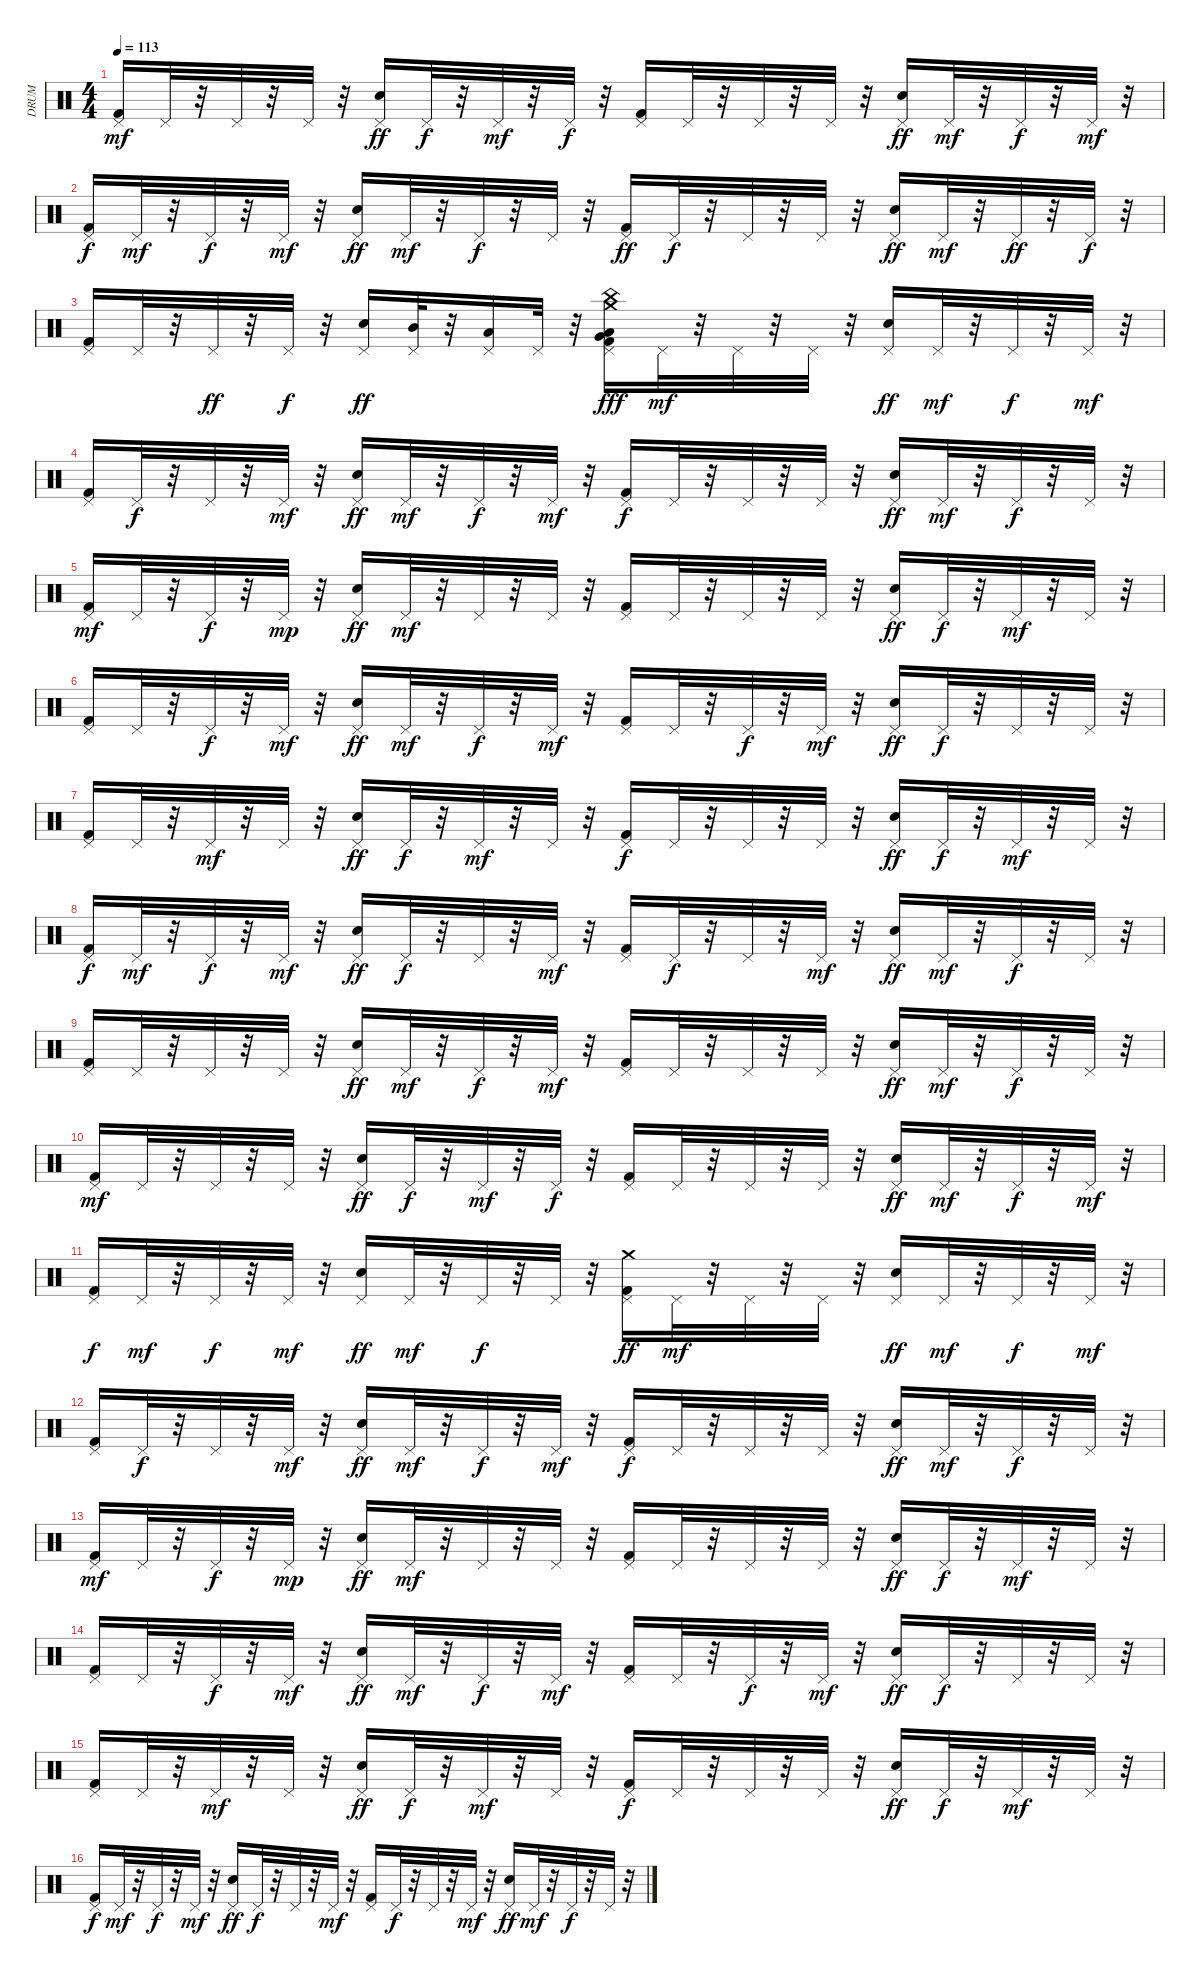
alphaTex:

\track ("DRUM" "DRUM") {instrument percussion}
\staff {score}
\articulation defaults
\ts (4 4)
\tempo 113
\clef neutral
\ks c
("Pedal Hi-Hat (hit)" "Kick (hit) 2").16{dy mf} "Pedal Hi-Hat (hit)".32 r.32 "Pedal Hi-Hat (hit)".32 r.32 "Pedal Hi-Hat (hit)".32 r.32 ("Pedal Hi-Hat (hit)" "Snare (hit) 2").16{dy ff} "Pedal Hi-Hat (hit)".32{dy f} r.32 "Pedal Hi-Hat (hit)".32{dy mf} r.32 "Pedal Hi-Hat (hit)".32{dy f} r.32 ("Pedal Hi-Hat (hit)" "Kick (hit) 2").16 "Pedal Hi-Hat (hit)".32 r.32 "Pedal Hi-Hat (hit)".32 r.32 "Pedal Hi-Hat (hit)".32 r.32 ("Pedal Hi-Hat (hit)" "Snare (hit) 2").16{dy ff} "Pedal Hi-Hat (hit)".32{dy mf} r.32 "Pedal Hi-Hat (hit)".32{dy f} r.32 "Pedal Hi-Hat (hit)".32{dy mf} r.32 |
("Pedal Hi-Hat (hit)" "Kick (hit) 2").16{dy f} "Pedal Hi-Hat (hit)".32{dy mf} r.32 "Pedal Hi-Hat (hit)".32{dy f} r.32 "Pedal Hi-Hat (hit)".32{dy mf} r.32 ("Pedal Hi-Hat (hit)" "Snare (hit) 2").16{dy ff} "Pedal Hi-Hat (hit)".32{dy mf} r.32 "Pedal Hi-Hat (hit)".32{dy f} r.32 "Pedal Hi-Hat (hit)".32 r.32 ("Pedal Hi-Hat (hit)" "Kick (hit) 2").16{dy ff} "Pedal Hi-Hat (hit)".32{dy f} r.32 "Pedal Hi-Hat (hit)".32 r.32 "Pedal Hi-Hat (hit)".32 r.32 ("Pedal Hi-Hat (hit)" "Snare (hit) 2").16{dy ff} "Pedal Hi-Hat (hit)".32{dy mf} r.32 "Pedal Hi-Hat (hit)".32{dy ff} r.32 "Pedal Hi-Hat (hit)".32{dy f} r.32 |
("Pedal Hi-Hat (hit)" "Kick (hit) 2").16 "Pedal Hi-Hat (hit)".32 r.32 "Pedal Hi-Hat (hit)".32{dy ff} r.32 "Pedal Hi-Hat (hit)".32{dy f} r.32 ("Pedal Hi-Hat (hit)" "Snare (hit) 2").16{dy ff} ("Mid Tom (hit)" "Pedal Hi-Hat (hit)").32 r.32 ("Low Tom (hit)" "Pedal Hi-Hat (hit)").16 "Pedal Hi-Hat (hit)".32 r.32 ("Crash medium (hit)" "Pedal Hi-Hat (hit)" "Kick (hit) 2" "Very Low Tom (hit)" "Low Floor Tom (hit)" "China (hit)").16{dy fff} "Pedal Hi-Hat (hit)".32{dy mf} r.32 "Pedal Hi-Hat (hit)".32 r.32 "Pedal Hi-Hat (hit)".32 r.32 ("Pedal Hi-Hat (hit)" "Snare (hit) 2").16{dy ff} "Pedal Hi-Hat (hit)".32{dy mf} r.32 "Pedal Hi-Hat (hit)".32{dy f} r.32 "Pedal Hi-Hat (hit)".32{dy mf} r.32 |
("Pedal Hi-Hat (hit)" "Kick (hit) 2").16 "Pedal Hi-Hat (hit)".32{dy f} r.32 "Pedal Hi-Hat (hit)".32 r.32 "Pedal Hi-Hat (hit)".32{dy mf} r.32 ("Pedal Hi-Hat (hit)" "Snare (hit) 2").16{dy ff} "Pedal Hi-Hat (hit)".32{dy mf} r.32 "Pedal Hi-Hat (hit)".32{dy f} r.32 "Pedal Hi-Hat (hit)".32{dy mf} r.32 ("Pedal Hi-Hat (hit)" "Kick (hit) 2").16{dy f} "Pedal Hi-Hat (hit)".32 r.32 "Pedal Hi-Hat (hit)".32 r.32 "Pedal Hi-Hat (hit)".32 r.32 ("Pedal Hi-Hat (hit)" "Snare (hit) 2").16{dy ff} "Pedal Hi-Hat (hit)".32{dy mf} r.32 "Pedal Hi-Hat (hit)".32{dy f} r.32 "Pedal Hi-Hat (hit)".32 r.32 |
("Pedal Hi-Hat (hit)" "Kick (hit) 2").16{dy mf} "Pedal Hi-Hat (hit)".32 r.32 "Pedal Hi-Hat (hit)".32{dy f} r.32 "Pedal Hi-Hat (hit)".32{dy mp} r.32 ("Pedal Hi-Hat (hit)" "Snare (hit) 2").16{dy ff} "Pedal Hi-Hat (hit)".32{dy mf} r.32 "Pedal Hi-Hat (hit)".32 r.32 "Pedal Hi-Hat (hit)".32 r.32 ("Pedal Hi-Hat (hit)" "Kick (hit) 2").16 "Pedal Hi-Hat (hit)".32 r.32 "Pedal Hi-Hat (hit)".32 r.32 "Pedal Hi-Hat (hit)".32 r.32 ("Pedal Hi-Hat (hit)" "Snare (hit) 2").16{dy ff} "Pedal Hi-Hat (hit)".32{dy f} r.32 "Pedal Hi-Hat (hit)".32{dy mf} r.32 "Pedal Hi-Hat (hit)".32 r.32 |
("Pedal Hi-Hat (hit)" "Kick (hit) 2").16 "Pedal Hi-Hat (hit)".32 r.32 "Pedal Hi-Hat (hit)".32{dy f} r.32 "Pedal Hi-Hat (hit)".32{dy mf} r.32 ("Pedal Hi-Hat (hit)" "Snare (hit) 2").16{dy ff} "Pedal Hi-Hat (hit)".32{dy mf} r.32 "Pedal Hi-Hat (hit)".32{dy f} r.32 "Pedal Hi-Hat (hit)".32{dy mf} r.32 ("Pedal Hi-Hat (hit)" "Kick (hit) 2").16 "Pedal Hi-Hat (hit)".32 r.32 "Pedal Hi-Hat (hit)".32{dy f} r.32 "Pedal Hi-Hat (hit)".32{dy mf} r.32 ("Pedal Hi-Hat (hit)" "Snare (hit) 2").16{dy ff} "Pedal Hi-Hat (hit)".32{dy f} r.32 "Pedal Hi-Hat (hit)".32 r.32 "Pedal Hi-Hat (hit)".32 r.32 |
("Pedal Hi-Hat (hit)" "Kick (hit) 2").16 "Pedal Hi-Hat (hit)".32 r.32 "Pedal Hi-Hat (hit)".32{dy mf} r.32 "Pedal Hi-Hat (hit)".32 r.32 ("Pedal Hi-Hat (hit)" "Snare (hit) 2").16{dy ff} "Pedal Hi-Hat (hit)".32{dy f} r.32 "Pedal Hi-Hat (hit)".32{dy mf} r.32 "Pedal Hi-Hat (hit)".32 r.32 ("Pedal Hi-Hat (hit)" "Kick (hit) 2").16{dy f} "Pedal Hi-Hat (hit)".32 r.32 "Pedal Hi-Hat (hit)".32 r.32 "Pedal Hi-Hat (hit)".32 r.32 ("Pedal Hi-Hat (hit)" "Snare (hit) 2").16{dy ff} "Pedal Hi-Hat (hit)".32{dy f} r.32 "Pedal Hi-Hat (hit)".32{dy mf} r.32 "Pedal Hi-Hat (hit)".32 r.32 |
("Pedal Hi-Hat (hit)" "Kick (hit) 2").16{dy f} "Pedal Hi-Hat (hit)".32{dy mf} r.32 "Pedal Hi-Hat (hit)".32{dy f} r.32 "Pedal Hi-Hat (hit)".32{dy mf} r.32 ("Pedal Hi-Hat (hit)" "Snare (hit) 2").16{dy ff} "Pedal Hi-Hat (hit)".32{dy f} r.32 "Pedal Hi-Hat (hit)".32 r.32 "Pedal Hi-Hat (hit)".32{dy mf} r.32 ("Pedal Hi-Hat (hit)" "Kick (hit) 2").16 "Pedal Hi-Hat (hit)".32{dy f} r.32 "Pedal Hi-Hat (hit)".32 r.32 "Pedal Hi-Hat (hit)".32{dy mf} r.32 ("Pedal Hi-Hat (hit)" "Snare (hit) 2").16{dy ff} "Pedal Hi-Hat (hit)".32{dy mf} r.32 "Pedal Hi-Hat (hit)".32{dy f} r.32 "Pedal Hi-Hat (hit)".32 r.32 |
("Pedal Hi-Hat (hit)" "Kick (hit) 2").16 "Pedal Hi-Hat (hit)".32 r.32 "Pedal Hi-Hat (hit)".32 r.32 "Pedal Hi-Hat (hit)".32 r.32 ("Pedal Hi-Hat (hit)" "Snare (hit) 2").16{dy ff} "Pedal Hi-Hat (hit)".32{dy mf} r.32 "Pedal Hi-Hat (hit)".32{dy f} r.32 "Pedal Hi-Hat (hit)".32{dy mf} r.32 ("Pedal Hi-Hat (hit)" "Kick (hit) 2").16 "Pedal Hi-Hat (hit)".32 r.32 "Pedal Hi-Hat (hit)".32 r.32 "Pedal Hi-Hat (hit)".32 r.32 ("Pedal Hi-Hat (hit)" "Snare (hit) 2").16{dy ff} "Pedal Hi-Hat (hit)".32{dy mf} r.32 "Pedal Hi-Hat (hit)".32{dy f} r.32 "Pedal Hi-Hat (hit)".32 r.32 |
("Pedal Hi-Hat (hit)" "Kick (hit) 2").16{dy mf} "Pedal Hi-Hat (hit)".32 r.32 "Pedal Hi-Hat (hit)".32 r.32 "Pedal Hi-Hat (hit)".32 r.32 ("Pedal Hi-Hat (hit)" "Snare (hit) 2").16{dy ff} "Pedal Hi-Hat (hit)".32{dy f} r.32 "Pedal Hi-Hat (hit)".32{dy mf} r.32 "Pedal Hi-Hat (hit)".32{dy f} r.32 ("Pedal Hi-Hat (hit)" "Kick (hit) 2").16 "Pedal Hi-Hat (hit)".32 r.32 "Pedal Hi-Hat (hit)".32 r.32 "Pedal Hi-Hat (hit)".32 r.32 ("Pedal Hi-Hat (hit)" "Snare (hit) 2").16{dy ff} "Pedal Hi-Hat (hit)".32{dy mf} r.32 "Pedal Hi-Hat (hit)".32{dy f} r.32 "Pedal Hi-Hat (hit)".32{dy mf} r.32 |
("Pedal Hi-Hat (hit)" "Kick (hit) 2").16{dy f} "Pedal Hi-Hat (hit)".32{dy mf} r.32 "Pedal Hi-Hat (hit)".32{dy f} r.32 "Pedal Hi-Hat (hit)".32{dy mf} r.32 ("Pedal Hi-Hat (hit)" "Snare (hit) 2").16{dy ff} "Pedal Hi-Hat (hit)".32{dy mf} r.32 "Pedal Hi-Hat (hit)".32{dy f} r.32 "Pedal Hi-Hat (hit)".32 r.32 ("Crash medium (hit)" "Pedal Hi-Hat (hit)" "Kick (hit) 2").16{dy ff} "Pedal Hi-Hat (hit)".32{dy mf} r.32 "Pedal Hi-Hat (hit)".32 r.32 "Pedal Hi-Hat (hit)".32 r.32 ("Pedal Hi-Hat (hit)" "Snare (hit) 2").16{dy ff} "Pedal Hi-Hat (hit)".32{dy mf} r.32 "Pedal Hi-Hat (hit)".32{dy f} r.32 "Pedal Hi-Hat (hit)".32{dy mf} r.32 |
("Pedal Hi-Hat (hit)" "Kick (hit) 2").16 "Pedal Hi-Hat (hit)".32{dy f} r.32 "Pedal Hi-Hat (hit)".32 r.32 "Pedal Hi-Hat (hit)".32{dy mf} r.32 ("Pedal Hi-Hat (hit)" "Snare (hit) 2").16{dy ff} "Pedal Hi-Hat (hit)".32{dy mf} r.32 "Pedal Hi-Hat (hit)".32{dy f} r.32 "Pedal Hi-Hat (hit)".32{dy mf} r.32 ("Pedal Hi-Hat (hit)" "Kick (hit) 2").16{dy f} "Pedal Hi-Hat (hit)".32 r.32 "Pedal Hi-Hat (hit)".32 r.32 "Pedal Hi-Hat (hit)".32 r.32 ("Pedal Hi-Hat (hit)" "Snare (hit) 2").16{dy ff} "Pedal Hi-Hat (hit)".32{dy mf} r.32 "Pedal Hi-Hat (hit)".32{dy f} r.32 "Pedal Hi-Hat (hit)".32 r.32 |
("Pedal Hi-Hat (hit)" "Kick (hit) 2").16{dy mf} "Pedal Hi-Hat (hit)".32 r.32 "Pedal Hi-Hat (hit)".32{dy f} r.32 "Pedal Hi-Hat (hit)".32{dy mp} r.32 ("Pedal Hi-Hat (hit)" "Snare (hit) 2").16{dy ff} "Pedal Hi-Hat (hit)".32{dy mf} r.32 "Pedal Hi-Hat (hit)".32 r.32 "Pedal Hi-Hat (hit)".32 r.32 ("Pedal Hi-Hat (hit)" "Kick (hit) 2").16 "Pedal Hi-Hat (hit)".32 r.32 "Pedal Hi-Hat (hit)".32 r.32 "Pedal Hi-Hat (hit)".32 r.32 ("Pedal Hi-Hat (hit)" "Snare (hit) 2").16{dy ff} "Pedal Hi-Hat (hit)".32{dy f} r.32 "Pedal Hi-Hat (hit)".32{dy mf} r.32 "Pedal Hi-Hat (hit)".32 r.32 |
("Pedal Hi-Hat (hit)" "Kick (hit) 2").16 "Pedal Hi-Hat (hit)".32 r.32 "Pedal Hi-Hat (hit)".32{dy f} r.32 "Pedal Hi-Hat (hit)".32{dy mf} r.32 ("Pedal Hi-Hat (hit)" "Snare (hit) 2").16{dy ff} "Pedal Hi-Hat (hit)".32{dy mf} r.32 "Pedal Hi-Hat (hit)".32{dy f} r.32 "Pedal Hi-Hat (hit)".32{dy mf} r.32 ("Pedal Hi-Hat (hit)" "Kick (hit) 2").16 "Pedal Hi-Hat (hit)".32 r.32 "Pedal Hi-Hat (hit)".32{dy f} r.32 "Pedal Hi-Hat (hit)".32{dy mf} r.32 ("Pedal Hi-Hat (hit)" "Snare (hit) 2").16{dy ff} "Pedal Hi-Hat (hit)".32{dy f} r.32 "Pedal Hi-Hat (hit)".32 r.32 "Pedal Hi-Hat (hit)".32 r.32 |
("Pedal Hi-Hat (hit)" "Kick (hit) 2").16 "Pedal Hi-Hat (hit)".32 r.32 "Pedal Hi-Hat (hit)".32{dy mf} r.32 "Pedal Hi-Hat (hit)".32 r.32 ("Pedal Hi-Hat (hit)" "Snare (hit) 2").16{dy ff} "Pedal Hi-Hat (hit)".32{dy f} r.32 "Pedal Hi-Hat (hit)".32{dy mf} r.32 "Pedal Hi-Hat (hit)".32 r.32 ("Pedal Hi-Hat (hit)" "Kick (hit) 2").16{dy f} "Pedal Hi-Hat (hit)".32 r.32 "Pedal Hi-Hat (hit)".32 r.32 "Pedal Hi-Hat (hit)".32 r.32 ("Pedal Hi-Hat (hit)" "Snare (hit) 2").16{dy ff} "Pedal Hi-Hat (hit)".32{dy f} r.32 "Pedal Hi-Hat (hit)".32{dy mf} r.32 "Pedal Hi-Hat (hit)".32 r.32 |
("Pedal Hi-Hat (hit)" "Kick (hit) 2").16{dy f} "Pedal Hi-Hat (hit)".32{dy mf} r.32 "Pedal Hi-Hat (hit)".32{dy f} r.32 "Pedal Hi-Hat (hit)".32{dy mf} r.32 ("Pedal Hi-Hat (hit)" "Snare (hit) 2").16{dy ff} "Pedal Hi-Hat (hit)".32{dy f} r.32 "Pedal Hi-Hat (hit)".32 r.32 "Pedal Hi-Hat (hit)".32{dy mf} r.32 ("Pedal Hi-Hat (hit)" "Kick (hit) 2").16 "Pedal Hi-Hat (hit)".32{dy f} r.32 "Pedal Hi-Hat (hit)".32 r.32 "Pedal Hi-Hat (hit)".32{dy mf} r.32 ("Pedal Hi-Hat (hit)" "Snare (hit) 2").16{dy ff} "Pedal Hi-Hat (hit)".32{dy mf} r.32 "Pedal Hi-Hat (hit)".32{dy f} r.32 "Pedal Hi-Hat (hit)".32 r.32
